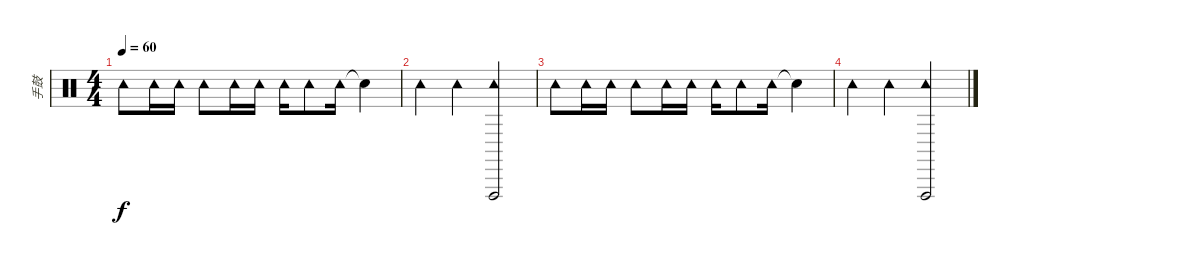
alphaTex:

\track ("手鼓" "手鼓") {instrument percussion}
\staff {score}
\articulation defaults
\ts (4 4)
\tempo 60
\clef neutral
\ks c "Tambourine (hit)".8{dy f} "Tambourine (hit)".16 "Tambourine (hit)".16 "Tambourine (hit)".8 "Tambourine (hit)".16 "Tambourine (hit)".16 "Tambourine (hit)".16 "Tambourine (hit)".8 "Tambourine (hit)".16 "Snare (hit)"{t}.4
|
"Tambourine (hit)".4 "Tambourine (hit)".4 ("Tambourine (hit)" "Vibraslap (hit)").2 |
"Tambourine (hit)".8 "Tambourine (hit)".16 "Tambourine (hit)".16 "Tambourine (hit)".8 "Tambourine (hit)".16 "Tambourine (hit)".16 "Tambourine (hit)".16 "Tambourine (hit)".8 "Tambourine (hit)".16 "Snare (hit)"{t}.4 |
"Tambourine (hit)".4 "Tambourine (hit)".4 ("Tambourine (hit)" "Vibraslap (hit)").2
